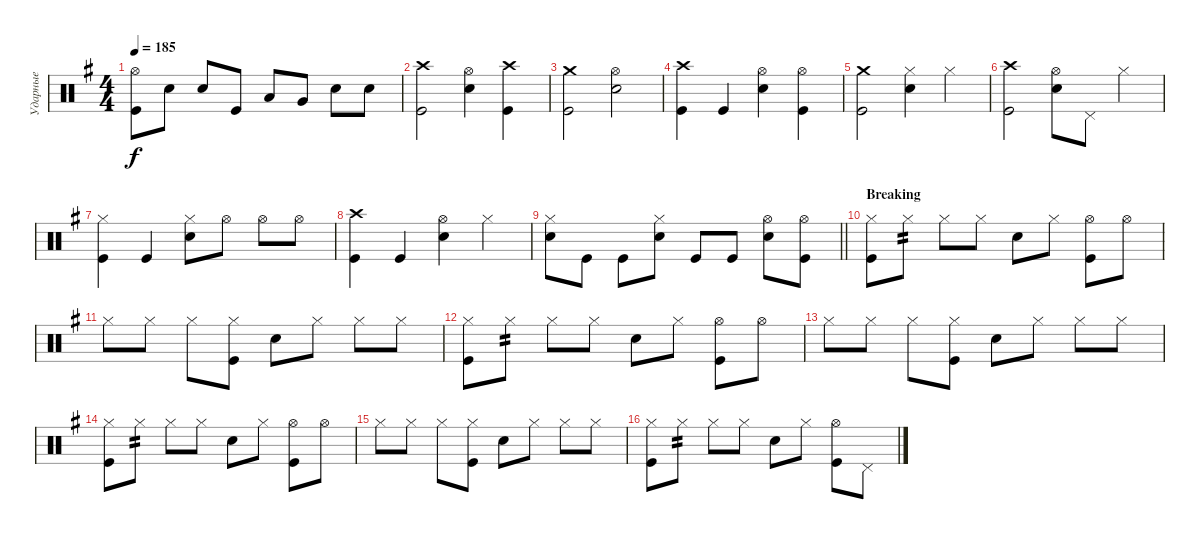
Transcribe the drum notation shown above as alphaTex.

\track ("Ударные" "Ударные") {instrument percussion}
\staff {score}
\articulation defaults
\ts (4 4)
\tempo 185
\clef neutral
\ks eminor
("Kick (hit)" "Hi-Hat (open)").8{dy f} "Snare (hit) 2".8 "Snare (hit) 2".8 "Kick (hit)".8 "Low Tom (hit)".8 "Very Low Tom (hit)".8 "Snare (hit) 2".8 "Snare (hit) 2".8 |
("Kick (hit)" "Crash high (hit)").2 ("Snare (hit) 2" "Hi-Hat (open)").4 ("Kick (hit)" "Crash high (hit)").4 |
("Kick (hit)" "Crash medium (hit)").2 ("Snare (hit) 2" "Hi-Hat (open)").2 |
("Kick (hit)" "Crash high (hit)").4 "Kick (hit)".4 ("Snare (hit) 2" "Hi-Hat (open)").4 ("Kick (hit)" "Hi-Hat (open)").4 |
("Kick (hit)" "Crash medium (hit)").2 ("Snare (hit) 2" "Hi-Hat (closed)").4 "Hi-Hat (closed)".4 |
("Kick (hit)" "Crash high (hit)").2 ("Snare (hit) 2" "Hi-Hat (open)").8 "Pedal Hi-Hat (hit)".8 "Hi-Hat (closed)".4 |
("Kick (hit)" "Hi-Hat (closed)").4 "Kick (hit)".4 ("Hi-Hat (closed)" "Snare (hit) 2").8 "Hi-Hat (open)".8 "Hi-Hat (open)".8 "Hi-Hat (open)".8 |
("Kick (hit)" "Crash high (hit)").4 "Kick (hit)".4 ("Hi-Hat (open)" "Snare (hit) 2").4 "Hi-Hat (closed)".4 |
\barLineRight lightlight
("Snare (hit) 2" "Hi-Hat (closed)").8 "Kick (hit)".8 "Kick (hit)".8 ("Snare (hit) 2" "Hi-Hat (closed)").8 "Kick (hit)".8 "Kick (hit)".8 ("Snare (hit) 2" "Hi-Hat (open)").8 ("Kick (hit)" "Hi-Hat (open)").8 |
\section ("" "Breaking")
("Hi-Hat (closed)" "Kick (hit)").8 "Hi-Hat (closed)".8{tp 2} "Hi-Hat (closed)".8 "Hi-Hat (closed)".8 "Snare (hit) 2".8 "Hi-Hat (closed)".8 ("Hi-Hat (open)" "Kick (hit)").8 "Hi-Hat (open)".8 |
"Hi-Hat (closed)".8 "Hi-Hat (closed)".8 "Hi-Hat (closed)".8 ("Hi-Hat (closed)" "Kick (hit)").8 "Snare (hit) 2".8 "Hi-Hat (closed)".8 "Hi-Hat (closed)".8 "Hi-Hat (closed)".8 |
("Hi-Hat (closed)" "Kick (hit)").8 "Hi-Hat (closed)".8{tp 2} "Hi-Hat (closed)".8 "Hi-Hat (closed)".8 "Snare (hit) 2".8 "Hi-Hat (closed)".8 ("Hi-Hat (open)" "Kick (hit)").8 "Hi-Hat (open)".8 |
"Hi-Hat (closed)".8 "Hi-Hat (closed)".8 "Hi-Hat (closed)".8 ("Hi-Hat (closed)" "Kick (hit)").8 "Snare (hit) 2".8 "Hi-Hat (closed)".8 "Hi-Hat (closed)".8 "Hi-Hat (closed)".8 |
("Hi-Hat (closed)" "Kick (hit)").8 "Hi-Hat (closed)".8{tp 2} "Hi-Hat (closed)".8 "Hi-Hat (closed)".8 "Snare (hit) 2".8 "Hi-Hat (closed)".8 ("Hi-Hat (open)" "Kick (hit)").8 "Hi-Hat (open)".8 |
"Hi-Hat (closed)".8 "Hi-Hat (closed)".8 "Hi-Hat (closed)".8 ("Hi-Hat (closed)" "Kick (hit)").8 "Snare (hit) 2".8 "Hi-Hat (closed)".8 "Hi-Hat (closed)".8 "Hi-Hat (closed)".8 |
("Hi-Hat (closed)" "Kick (hit)").8 "Hi-Hat (closed)".8{tp 2} "Hi-Hat (closed)".8 "Hi-Hat (closed)".8 "Snare (hit) 2".8 "Hi-Hat (closed)".8 ("Hi-Hat (open)" "Kick (hit)").8 "Pedal Hi-Hat (hit)".8
